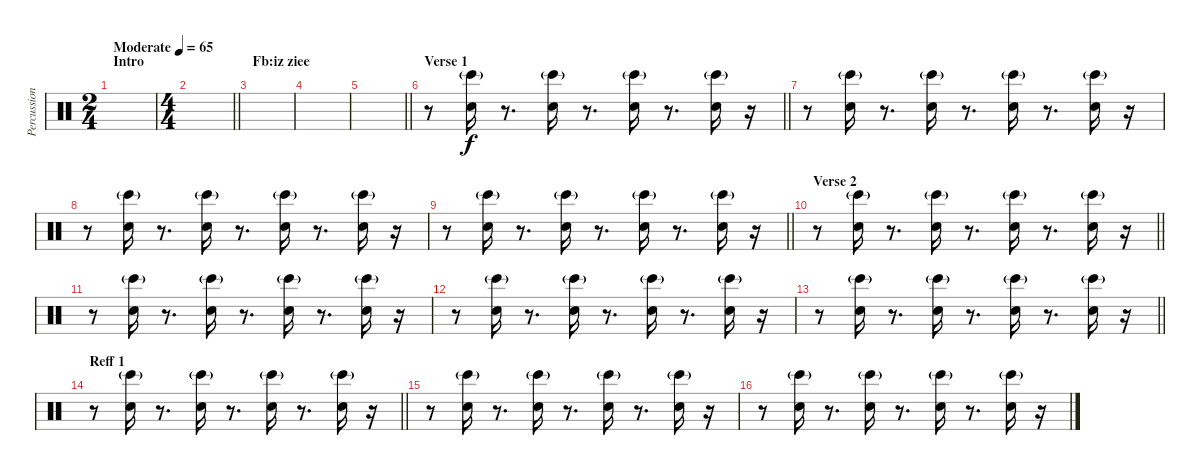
\track ("Percussion 2 (Clap)" "Percussion") {instrument percussion}
\staff {score}
\articulation defaults
\ts (2 4)
\section ("" "Intro")
\tempo (65 "Moderate")
\clef neutral
\ks c
|
\ts (4 4)
\barLineRight lightlight
|
\section ("" "Fb:iz ziee")
|
|
\barLineRight lightlight
|
\section ("" "Verse 1")
\barLineRight lightlight
r.8 ("Hand Clap (hit)" "Bongo High (hit)"{g}).16 r.8{d} ("Hand Clap (hit)" "Bongo High (hit)"{g}).16 r.8{d} ("Hand Clap (hit)" "Bongo High (hit)"{g}).16 r.8{d} ("Hand Clap (hit)" "Bongo High (hit)"{g}).16 r.16 |
r.8 ("Hand Clap (hit)" "Bongo High (hit)"{g}).16 r.8{d} ("Hand Clap (hit)" "Bongo High (hit)"{g}).16 r.8{d} ("Hand Clap (hit)" "Bongo High (hit)"{g}).16 r.8{d} ("Hand Clap (hit)" "Bongo High (hit)"{g}).16 r.16 |
r.8 ("Hand Clap (hit)" "Bongo High (hit)"{g}).16 r.8{d} ("Hand Clap (hit)" "Bongo High (hit)"{g}).16 r.8{d} ("Hand Clap (hit)" "Bongo High (hit)"{g}).16 r.8{d} ("Hand Clap (hit)" "Bongo High (hit)"{g}).16 r.16 |
\barLineRight lightlight
r.8 ("Hand Clap (hit)" "Bongo High (hit)"{g}).16 r.8{d} ("Hand Clap (hit)" "Bongo High (hit)"{g}).16 r.8{d} ("Hand Clap (hit)" "Bongo High (hit)"{g}).16 r.8{d} ("Hand Clap (hit)" "Bongo High (hit)"{g}).16 r.16 |
\section ("" "Verse 2")
\barLineRight lightlight
r.8 ("Hand Clap (hit)" "Bongo High (hit)"{g}).16 r.8{d} ("Hand Clap (hit)" "Bongo High (hit)"{g}).16 r.8{d} ("Hand Clap (hit)" "Bongo High (hit)"{g}).16 r.8{d} ("Hand Clap (hit)" "Bongo High (hit)"{g}).16 r.16 |
r.8 ("Hand Clap (hit)" "Bongo High (hit)"{g}).16 r.8{d} ("Hand Clap (hit)" "Bongo High (hit)"{g}).16 r.8{d} ("Hand Clap (hit)" "Bongo High (hit)"{g}).16 r.8{d} ("Hand Clap (hit)" "Bongo High (hit)"{g}).16 r.16 |
r.8 ("Hand Clap (hit)" "Bongo High (hit)"{g}).16 r.8{d} ("Hand Clap (hit)" "Bongo High (hit)"{g}).16 r.8{d} ("Hand Clap (hit)" "Bongo High (hit)"{g}).16 r.8{d} ("Hand Clap (hit)" "Bongo High (hit)"{g}).16 r.16 |
\barLineRight lightlight
r.8 ("Hand Clap (hit)" "Bongo High (hit)"{g}).16 r.8{d} ("Hand Clap (hit)" "Bongo High (hit)"{g}).16 r.8{d} ("Hand Clap (hit)" "Bongo High (hit)"{g}).16 r.8{d} ("Hand Clap (hit)" "Bongo High (hit)"{g}).16 r.16 |
\section ("" "Reff 1")
\barLineRight lightlight
r.8 ("Hand Clap (hit)" "Bongo High (hit)"{g}).16 r.8{d} ("Hand Clap (hit)" "Bongo High (hit)"{g}).16 r.8{d} ("Hand Clap (hit)" "Bongo High (hit)"{g}).16 r.8{d} ("Hand Clap (hit)" "Bongo High (hit)"{g}).16 r.16 |
r.8 ("Hand Clap (hit)" "Bongo High (hit)"{g}).16 r.8{d} ("Hand Clap (hit)" "Bongo High (hit)"{g}).16 r.8{d} ("Hand Clap (hit)" "Bongo High (hit)"{g}).16 r.8{d} ("Hand Clap (hit)" "Bongo High (hit)"{g}).16 r.16 |
r.8 ("Hand Clap (hit)" "Bongo High (hit)"{g}).16 r.8{d} ("Hand Clap (hit)" "Bongo High (hit)"{g}).16 r.8{d} ("Hand Clap (hit)" "Bongo High (hit)"{g}).16 r.8{d} ("Hand Clap (hit)" "Bongo High (hit)"{g}).16 r.16
